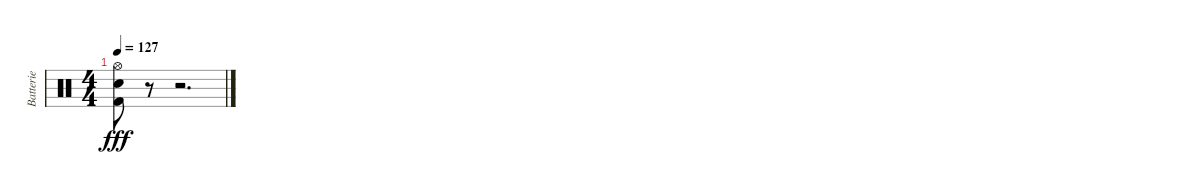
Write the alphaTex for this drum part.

\track ("Batterie" "Batterie") {instrument percussion}
\staff {score}
\articulation defaults
\ts (4 4)
\tempo 127
\clef neutral
\ks c
("Hi-Hat (open)" "Electric Snare (hit)" "Kick (hit) 2").8{dy fff} r.8 r.2{d}
